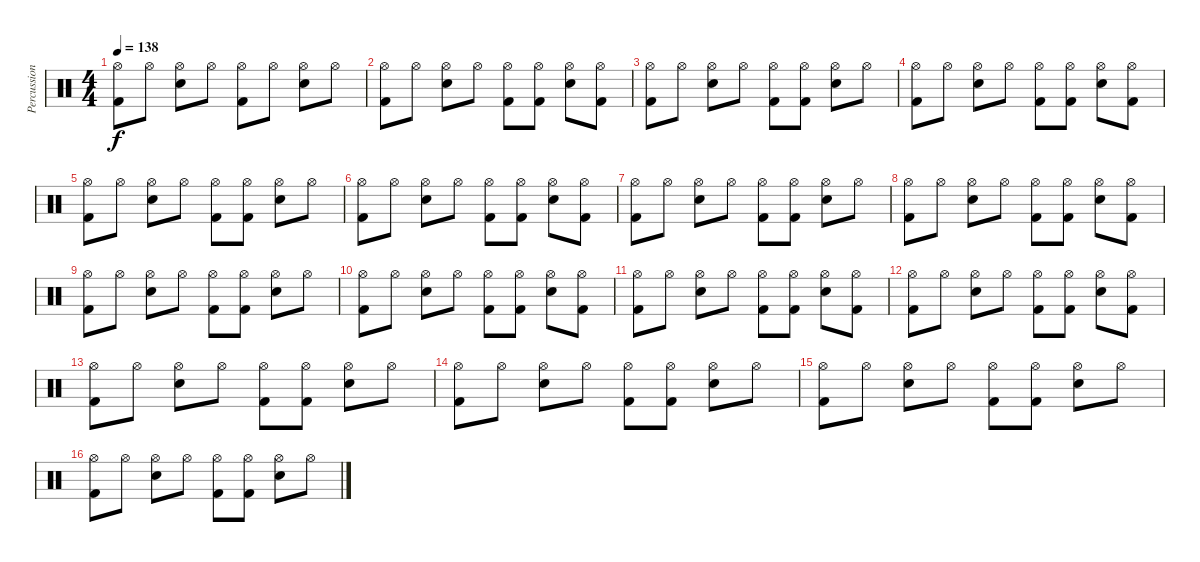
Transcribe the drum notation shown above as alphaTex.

\track ("Percussion" "Percussion") {instrument percussion}
\staff {score}
\articulation defaults
\ts (4 4)
\tempo 138
\clef neutral
\ks c
("Hi-Hat (open)" "Kick (hit) 2").8{dy f} "Hi-Hat (open)".8 ("Hi-Hat (open)" "Snare (hit) 2").8 "Hi-Hat (open)".8 ("Hi-Hat (open)" "Kick (hit) 2").8 "Hi-Hat (open)".8 ("Hi-Hat (open)" "Snare (hit) 2").8 "Hi-Hat (open)".8 |
("Hi-Hat (open)" "Kick (hit) 2").8 "Hi-Hat (open)".8 ("Hi-Hat (open)" "Snare (hit) 2").8 "Hi-Hat (open)".8 ("Hi-Hat (open)" "Kick (hit) 2").8 ("Hi-Hat (open)" "Kick (hit) 2").8 ("Hi-Hat (open)" "Snare (hit) 2").8 ("Hi-Hat (open)" "Kick (hit) 2").8 |
("Hi-Hat (open)" "Kick (hit) 2").8 "Hi-Hat (open)".8 ("Hi-Hat (open)" "Snare (hit) 2").8 "Hi-Hat (open)".8 ("Hi-Hat (open)" "Kick (hit) 2").8 ("Hi-Hat (open)" "Kick (hit) 2").8 ("Hi-Hat (open)" "Snare (hit) 2").8 "Hi-Hat (open)".8 |
("Hi-Hat (open)" "Kick (hit) 2").8 "Hi-Hat (open)".8 ("Hi-Hat (open)" "Snare (hit) 2").8 "Hi-Hat (open)".8 ("Hi-Hat (open)" "Kick (hit) 2").8 ("Hi-Hat (open)" "Kick (hit) 2").8 ("Hi-Hat (open)" "Snare (hit) 2").8 ("Hi-Hat (open)" "Kick (hit) 2").8 |
("Hi-Hat (open)" "Kick (hit) 2").8 "Hi-Hat (open)".8 ("Hi-Hat (open)" "Snare (hit) 2").8 "Hi-Hat (open)".8 ("Hi-Hat (open)" "Kick (hit) 2").8 ("Hi-Hat (open)" "Kick (hit) 2").8 ("Hi-Hat (open)" "Snare (hit) 2").8 "Hi-Hat (open)".8 |
("Hi-Hat (open)" "Kick (hit) 2").8 "Hi-Hat (open)".8 ("Hi-Hat (open)" "Snare (hit) 2").8 "Hi-Hat (open)".8 ("Hi-Hat (open)" "Kick (hit) 2").8 ("Hi-Hat (open)" "Kick (hit) 2").8 ("Hi-Hat (open)" "Snare (hit) 2").8 ("Hi-Hat (open)" "Kick (hit) 2").8 |
("Hi-Hat (open)" "Kick (hit) 2").8 "Hi-Hat (open)".8 ("Hi-Hat (open)" "Snare (hit) 2").8 "Hi-Hat (open)".8 ("Hi-Hat (open)" "Kick (hit) 2").8 ("Hi-Hat (open)" "Kick (hit) 2").8 ("Hi-Hat (open)" "Snare (hit) 2").8 "Hi-Hat (open)".8 |
("Hi-Hat (open)" "Kick (hit) 2").8 "Hi-Hat (open)".8 ("Hi-Hat (open)" "Snare (hit) 2").8 "Hi-Hat (open)".8 ("Hi-Hat (open)" "Kick (hit) 2").8 ("Hi-Hat (open)" "Kick (hit) 2").8 ("Hi-Hat (open)" "Snare (hit) 2").8 ("Hi-Hat (open)" "Kick (hit) 2").8 |
("Hi-Hat (open)" "Kick (hit) 2").8 "Hi-Hat (open)".8 ("Hi-Hat (open)" "Snare (hit) 2").8 "Hi-Hat (open)".8 ("Hi-Hat (open)" "Kick (hit) 2").8 ("Hi-Hat (open)" "Kick (hit) 2").8 ("Hi-Hat (open)" "Snare (hit) 2").8 "Hi-Hat (open)".8 |
("Hi-Hat (open)" "Kick (hit) 2").8 "Hi-Hat (open)".8 ("Hi-Hat (open)" "Snare (hit) 2").8 "Hi-Hat (open)".8 ("Hi-Hat (open)" "Kick (hit) 2").8 ("Hi-Hat (open)" "Kick (hit) 2").8 ("Hi-Hat (open)" "Snare (hit) 2").8 ("Hi-Hat (open)" "Kick (hit) 2").8 |
("Hi-Hat (open)" "Kick (hit) 2").8 "Hi-Hat (open)".8 ("Hi-Hat (open)" "Snare (hit) 2").8 "Hi-Hat (open)".8 ("Hi-Hat (open)" "Kick (hit) 2").8 ("Hi-Hat (open)" "Kick (hit) 2").8 ("Hi-Hat (open)" "Snare (hit) 2").8 ("Hi-Hat (open)" "Kick (hit) 2").8 |
("Hi-Hat (open)" "Kick (hit) 2").8 "Hi-Hat (open)".8 ("Hi-Hat (open)" "Snare (hit) 2").8 "Hi-Hat (open)".8 ("Hi-Hat (open)" "Kick (hit) 2").8 ("Hi-Hat (open)" "Kick (hit) 2").8 ("Hi-Hat (open)" "Snare (hit) 2").8 ("Hi-Hat (open)" "Kick (hit) 2").8 |
("Hi-Hat (open)" "Kick (hit) 2").8 "Hi-Hat (open)".8 ("Hi-Hat (open)" "Snare (hit) 2").8 "Hi-Hat (open)".8 ("Hi-Hat (open)" "Kick (hit) 2").8 ("Hi-Hat (open)" "Kick (hit) 2").8 ("Hi-Hat (open)" "Snare (hit) 2").8 "Hi-Hat (open)".8 |
("Hi-Hat (open)" "Kick (hit) 2").8 "Hi-Hat (open)".8 ("Hi-Hat (open)" "Snare (hit) 2").8 "Hi-Hat (open)".8 ("Hi-Hat (open)" "Kick (hit) 2").8 ("Hi-Hat (open)" "Kick (hit) 2").8 ("Hi-Hat (open)" "Snare (hit) 2").8 "Hi-Hat (open)".8 |
("Hi-Hat (open)" "Kick (hit) 2").8 "Hi-Hat (open)".8 ("Hi-Hat (open)" "Snare (hit) 2").8 "Hi-Hat (open)".8 ("Hi-Hat (open)" "Kick (hit) 2").8 ("Hi-Hat (open)" "Kick (hit) 2").8 ("Hi-Hat (open)" "Snare (hit) 2").8 "Hi-Hat (open)".8 |
("Hi-Hat (open)" "Kick (hit) 2").8 "Hi-Hat (open)".8 ("Hi-Hat (open)" "Snare (hit) 2").8 "Hi-Hat (open)".8 ("Hi-Hat (open)" "Kick (hit) 2").8 ("Hi-Hat (open)" "Kick (hit) 2").8 ("Hi-Hat (open)" "Snare (hit) 2").8 "Hi-Hat (open)".8
